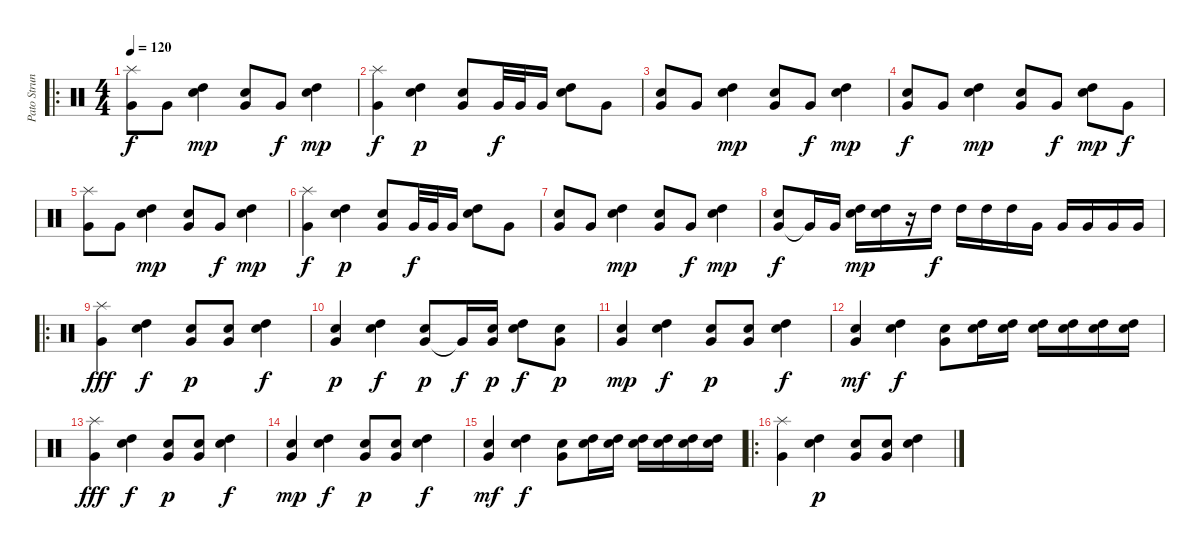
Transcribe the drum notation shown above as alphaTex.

\track ("Pato Strunz" "Pato Strun") {instrument percussion}
\staff {score}
\articulation defaults
\ro
\ts (4 4)
\tempo 120
\clef neutral
\ks c
("Very Low Tom (hit)" "Splash (hit)").8{dy f volume 16} "Very Low Tom (hit)".8 ("High Tom (hit)" "Snare (hit) 2").4{dy mp} ("Very Low Tom (hit)" "Snare (hit) 2").8 "Very Low Tom (hit)".8{dy f} ("High Tom (hit)" "Snare (hit) 2").4{dy mp} |
("Very Low Tom (hit)" "Splash (hit)").4{dy f} ("High Tom (hit)" "Snare (hit) 2").4{dy p} ("Very Low Tom (hit)" "Snare (hit) 2").8 "Very Low Tom (hit)".32{dy f} "Very Low Tom (hit)".32 "Very Low Tom (hit)".16 ("High Tom (hit)" "Snare (hit) 2").8 "Very Low Tom (hit)".8 |
("Very Low Tom (hit)" "Snare (hit) 2").8 "Very Low Tom (hit)".8 ("High Tom (hit)" "Snare (hit) 2").4{dy mp} ("Very Low Tom (hit)" "Snare (hit) 2").8 "Very Low Tom (hit)".8{dy f} ("High Tom (hit)" "Snare (hit) 2").4{dy mp} |
("Very Low Tom (hit)" "Snare (hit) 2").8{dy f} "Very Low Tom (hit)".8 ("High Tom (hit)" "Snare (hit) 2").4{dy mp} ("Very Low Tom (hit)" "Snare (hit) 2").8 "Very Low Tom (hit)".8{dy f} ("High Tom (hit)" "Snare (hit) 2").8{dy mp} "Very Low Tom (hit)".8{dy f} |
("Very Low Tom (hit)" "Splash (hit)").8 "Very Low Tom (hit)".8 ("High Tom (hit)" "Snare (hit) 2").4{dy mp} ("Very Low Tom (hit)" "Snare (hit) 2").8 "Very Low Tom (hit)".8{dy f} ("High Tom (hit)" "Snare (hit) 2").4{dy mp} |
("Very Low Tom (hit)" "Splash (hit)").4{dy f} ("High Tom (hit)" "Snare (hit) 2").4{dy p} ("Very Low Tom (hit)" "Snare (hit) 2").8 "Very Low Tom (hit)".32{dy f} "Very Low Tom (hit)".32 "Very Low Tom (hit)".16 ("High Tom (hit)" "Snare (hit) 2").8 "Very Low Tom (hit)".8 |
("Very Low Tom (hit)" "Snare (hit) 2").8 "Very Low Tom (hit)".8 ("High Tom (hit)" "Snare (hit) 2").4{dy mp} ("Very Low Tom (hit)" "Snare (hit) 2").8 "Very Low Tom (hit)".8{dy f} ("High Tom (hit)" "Snare (hit) 2").4{dy mp} |
("Very Low Tom (hit)" "Snare (hit) 2").8{dy f} "Very Low Tom (hit)"{t}.16 "Very Low Tom (hit)".16 ("High Tom (hit)" "Snare (hit) 2").16{dy mp} ("High Tom (hit)" "Snare (hit) 2").16 r.16 "High Tom (hit)".16{dy f} "High Tom (hit)".16 "High Tom (hit)".16 "High Tom (hit)".16 "Very Low Tom (hit)".16 "Very Low Tom (hit)".16 "Very Low Tom (hit)".16 "Very Low Tom (hit)".16 "Very Low Tom (hit)".16 |
\ro
("Very Low Tom (hit)" "Splash (hit)").4{dy fff} ("High Tom (hit)" "Snare (hit) 2").4{dy f} ("Very Low Tom (hit)" "Snare (hit) 2").8{dy p} ("Very Low Tom (hit)" "Snare (hit) 2").8 ("High Tom (hit)" "Snare (hit) 2").4{dy f} |
("Very Low Tom (hit)" "Snare (hit) 2").4{dy p} ("High Tom (hit)" "Snare (hit) 2").4{dy f} ("Very Low Tom (hit)" "Snare (hit) 2").8{dy p} "Very Low Tom (hit)"{t}.16{dy f} ("Very Low Tom (hit)" "Snare (hit) 2").16{dy p} ("High Tom (hit)" "Snare (hit) 2").8{dy f} ("Very Low Tom (hit)" "Snare (hit) 2").8{dy p} |
("Very Low Tom (hit)" "Snare (hit) 2").4{dy mp} ("High Tom (hit)" "Snare (hit) 2").4{dy f} ("Very Low Tom (hit)" "Snare (hit) 2").8{dy p} ("Very Low Tom (hit)" "Snare (hit) 2").8 ("High Tom (hit)" "Snare (hit) 2").4{dy f} |
("Very Low Tom (hit)" "Snare (hit) 2").4{dy mf} ("High Tom (hit)" "Snare (hit) 2").4{dy f} ("Very Low Tom (hit)" "Snare (hit) 2").8 ("High Tom (hit)" "Snare (hit) 2").16 ("High Tom (hit)" "Snare (hit) 2").16 ("High Tom (hit)" "Snare (hit) 2").16 ("High Tom (hit)" "Snare (hit) 2").16 ("High Tom (hit)" "Snare (hit) 2").16 ("High Tom (hit)" "Snare (hit) 2").16 |
("Very Low Tom (hit)" "Splash (hit)").4{dy fff} ("High Tom (hit)" "Snare (hit) 2").4{dy f} ("Very Low Tom (hit)" "Snare (hit) 2").8{dy p} ("Very Low Tom (hit)" "Snare (hit) 2").8 ("High Tom (hit)" "Snare (hit) 2").4{dy f} |
("Very Low Tom (hit)" "Snare (hit) 2").4{dy mp} ("High Tom (hit)" "Snare (hit) 2").4{dy f} ("Very Low Tom (hit)" "Snare (hit) 2").8{dy p} ("Very Low Tom (hit)" "Snare (hit) 2").8 ("High Tom (hit)" "Snare (hit) 2").4{dy f} |
("Very Low Tom (hit)" "Snare (hit) 2").4{dy mf} ("High Tom (hit)" "Snare (hit) 2").4{dy f} ("Very Low Tom (hit)" "Snare (hit) 2").8 ("High Tom (hit)" "Snare (hit) 2").16 ("High Tom (hit)" "Snare (hit) 2").16 ("High Tom (hit)" "Snare (hit) 2").16 ("High Tom (hit)" "Snare (hit) 2").16 ("High Tom (hit)" "Snare (hit) 2").16 ("High Tom (hit)" "Snare (hit) 2").16 |
\ro
("Very Low Tom (hit)" "Splash (hit)").4 ("High Tom (hit)" "Snare (hit) 2").4{dy p} ("Very Low Tom (hit)" "Snare (hit) 2").8 ("Very Low Tom (hit)" "Snare (hit) 2").8 ("High Tom (hit)" "Snare (hit) 2").4
